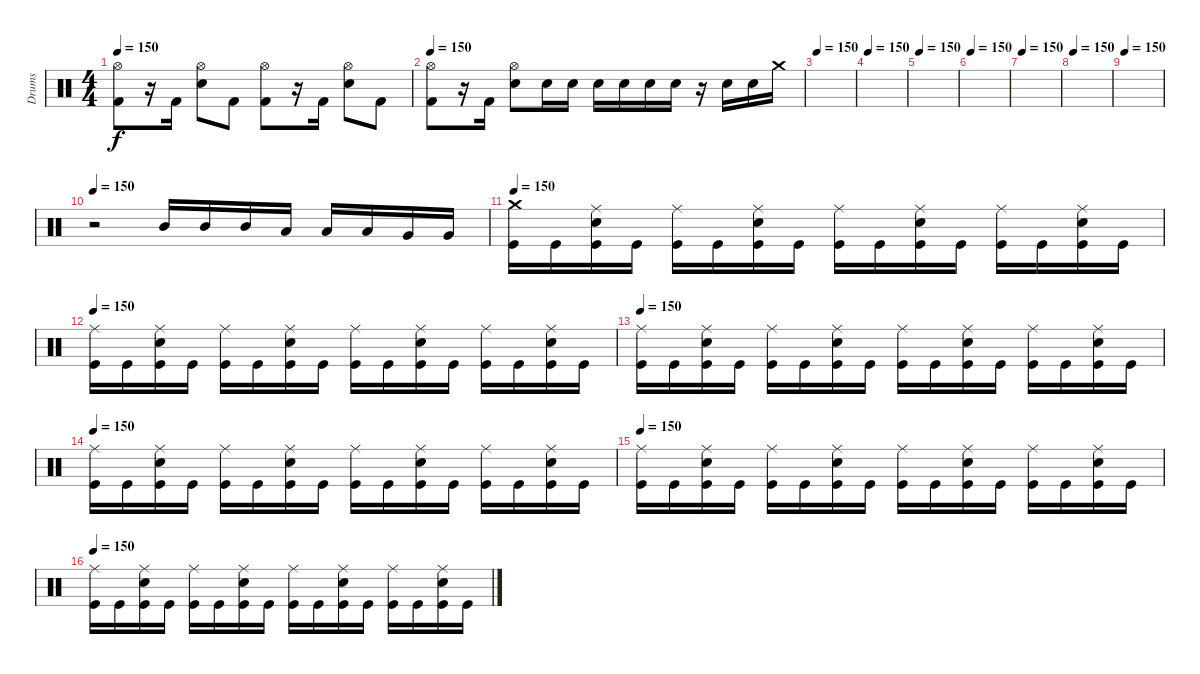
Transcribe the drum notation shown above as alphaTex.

\track ("Drums" "Drums") {instrument percussion}
\staff {score}
\articulation defaults
\ts (4 4)
\tempo 150
\clef neutral
\ks c
("Kick (hit) 2" "Hi-Hat (open)").8{dy f} r.16 "Kick (hit) 2".16 ("Electric Snare (hit)" "Hi-Hat (open)").8 "Kick (hit) 2".8 ("Kick (hit) 2" "Hi-Hat (open)").8 r.16 "Kick (hit) 2".16 ("Electric Snare (hit)" "Hi-Hat (open)").8 "Kick (hit) 2".8 |
\tempo 150
("Kick (hit) 2" "Hi-Hat (open)").8 r.16 "Kick (hit) 2".16 ("Electric Snare (hit)" "Hi-Hat (open)").8 "Electric Snare (hit)".16 "Electric Snare (hit)".16 "Snare (hit) 2".16 "Snare (hit) 2".16 "Electric Snare (hit)".16 "Electric Snare (hit)".16 r.16 "Electric Snare (hit)".16 "Electric Snare (hit)".16 "Crash medium (hit)".16 |
\tempo 150
|
\tempo 150
|
\tempo 150
|
\tempo 150
|
\tempo 150
|
\tempo 150
|
\tempo 150
|
\tempo 150
r.2 "Mid Tom (hit)".16 "Mid Tom (hit)".16 "Mid Tom (hit)".16 "Low Tom (hit)".16 "Low Tom (hit)".16 "Low Tom (hit)".16 "Very Low Tom (hit)".16 "Very Low Tom (hit)".16 |
\tempo 150
("Kick (hit)" "Crash medium (hit)").16 "Kick (hit)".16 ("Kick (hit)" "Snare (hit) 2" "Ride (middle)").16 "Kick (hit)".16 ("Kick (hit)" "Ride (middle)").16 "Kick (hit)".16 ("Kick (hit)" "Snare (hit) 2" "Ride (middle)").16 "Kick (hit)".16 ("Kick (hit)" "Ride (middle)").16 "Kick (hit)".16 ("Kick (hit)" "Snare (hit) 2" "Ride (middle)").16 "Kick (hit)".16 ("Kick (hit)" "Ride (middle)").16 "Kick (hit)".16 ("Kick (hit)" "Snare (hit) 2" "Ride (middle)").16 "Kick (hit)".16 |
\tempo 150
("Kick (hit)" "Ride (middle)").16 "Kick (hit)".16 ("Kick (hit)" "Snare (hit) 2" "Ride (middle)").16 "Kick (hit)".16 ("Kick (hit)" "Ride (middle)").16 "Kick (hit)".16 ("Kick (hit)" "Snare (hit) 2" "Ride (middle)").16 "Kick (hit)".16 ("Kick (hit)" "Ride (middle)").16 "Kick (hit)".16 ("Kick (hit)" "Snare (hit) 2" "Ride (middle)").16 "Kick (hit)".16 ("Kick (hit)" "Ride (middle)").16 "Kick (hit)".16 ("Kick (hit)" "Snare (hit) 2" "Ride (middle)").16 "Kick (hit)".16 |
\tempo 150
("Kick (hit)" "Ride (middle)").16 "Kick (hit)".16 ("Kick (hit)" "Snare (hit) 2" "Ride (middle)").16 "Kick (hit)".16 ("Kick (hit)" "Ride (middle)").16 "Kick (hit)".16 ("Kick (hit)" "Snare (hit) 2" "Ride (middle)").16 "Kick (hit)".16 ("Kick (hit)" "Ride (middle)").16 "Kick (hit)".16 ("Kick (hit)" "Snare (hit) 2" "Ride (middle)").16 "Kick (hit)".16 ("Kick (hit)" "Ride (middle)").16 "Kick (hit)".16 ("Kick (hit)" "Snare (hit) 2" "Ride (middle)").16 "Kick (hit)".16 |
\tempo 150
("Kick (hit)" "Ride (middle)").16 "Kick (hit)".16 ("Kick (hit)" "Snare (hit) 2" "Ride (middle)").16 "Kick (hit)".16 ("Kick (hit)" "Ride (middle)").16 "Kick (hit)".16 ("Kick (hit)" "Snare (hit) 2" "Ride (middle)").16 "Kick (hit)".16 ("Kick (hit)" "Ride (middle)").16 "Kick (hit)".16 ("Kick (hit)" "Snare (hit) 2" "Ride (middle)").16 "Kick (hit)".16 ("Kick (hit)" "Ride (middle)").16 "Kick (hit)".16 ("Kick (hit)" "Snare (hit) 2" "Ride (middle)").16 "Kick (hit)".16 |
\tempo 150
("Kick (hit)" "Ride (middle)").16 "Kick (hit)".16 ("Kick (hit)" "Snare (hit) 2" "Ride (middle)").16 "Kick (hit)".16 ("Kick (hit)" "Ride (middle)").16 "Kick (hit)".16 ("Kick (hit)" "Snare (hit) 2" "Ride (middle)").16 "Kick (hit)".16 ("Kick (hit)" "Ride (middle)").16 "Kick (hit)".16 ("Kick (hit)" "Snare (hit) 2" "Ride (middle)").16 "Kick (hit)".16 ("Kick (hit)" "Ride (middle)").16 "Kick (hit)".16 ("Kick (hit)" "Snare (hit) 2" "Ride (middle)").16 "Kick (hit)".16 |
\tempo 150
("Kick (hit)" "Ride (middle)").16 "Kick (hit)".16 ("Kick (hit)" "Snare (hit) 2" "Ride (middle)").16 "Kick (hit)".16 ("Kick (hit)" "Ride (middle)").16 "Kick (hit)".16 ("Kick (hit)" "Snare (hit) 2" "Ride (middle)").16 "Kick (hit)".16 ("Kick (hit)" "Ride (middle)").16 "Kick (hit)".16 ("Kick (hit)" "Snare (hit) 2" "Ride (middle)").16 "Kick (hit)".16 ("Kick (hit)" "Ride (middle)").16 "Kick (hit)".16 ("Kick (hit)" "Snare (hit) 2" "Ride (middle)").16 "Kick (hit)".16
